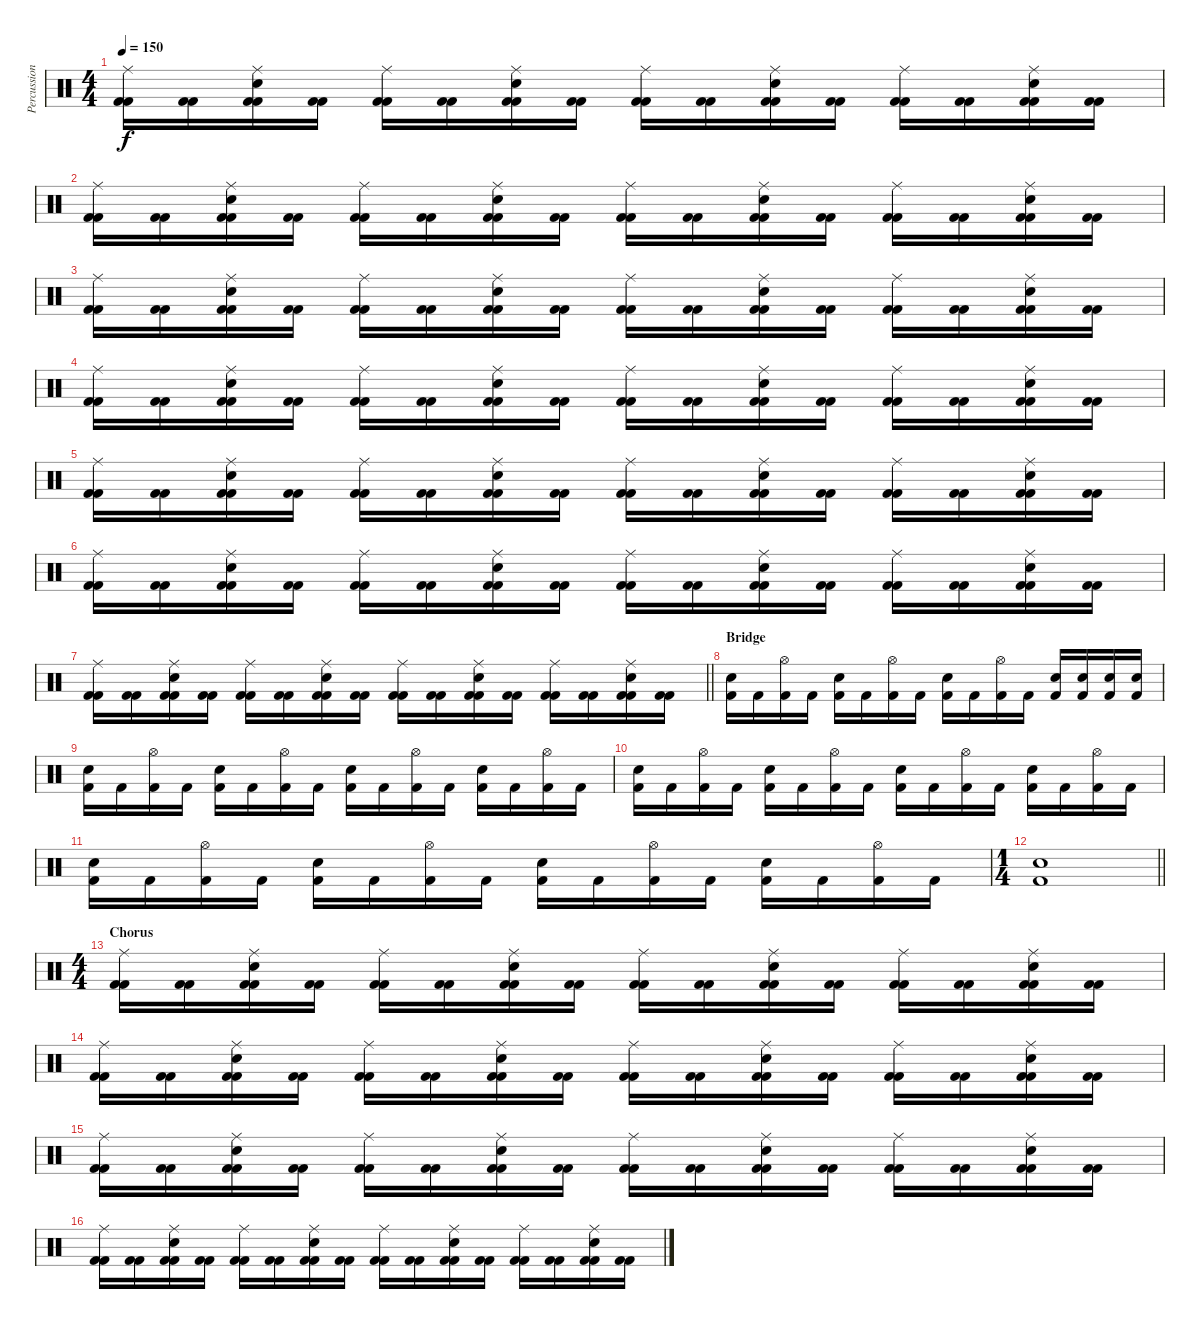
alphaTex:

\track ("Percussion" "Percussion") {instrument percussion}
\staff {score}
\articulation defaults
\ts (4 4)
\tempo 150
\clef neutral
\ks c
("Kick (hit) 2" "Kick (hit) 2" "Ride (middle)").16{dy f} ("Kick (hit) 2" "Kick (hit) 2").16 ("Kick (hit) 2" "Kick (hit) 2" "Electric Snare (hit)" "Ride (middle)").16 ("Kick (hit) 2" "Kick (hit) 2").16 ("Kick (hit) 2" "Kick (hit) 2" "Ride (middle)").16 ("Kick (hit) 2" "Kick (hit) 2").16 ("Kick (hit) 2" "Kick (hit) 2" "Electric Snare (hit)" "Ride (middle)").16 ("Kick (hit) 2" "Kick (hit) 2").16 ("Kick (hit) 2" "Kick (hit) 2" "Ride (middle)").16 ("Kick (hit) 2" "Kick (hit) 2").16 ("Kick (hit) 2" "Kick (hit) 2" "Electric Snare (hit)" "Ride (middle)").16 ("Kick (hit) 2" "Kick (hit) 2").16 ("Kick (hit) 2" "Kick (hit) 2" "Ride (middle)").16 ("Kick (hit) 2" "Kick (hit) 2").16 ("Kick (hit) 2" "Kick (hit) 2" "Electric Snare (hit)" "Ride (middle)").16 ("Kick (hit) 2" "Kick (hit) 2").16 |
("Kick (hit) 2" "Kick (hit) 2" "Ride (middle)").16 ("Kick (hit) 2" "Kick (hit) 2").16 ("Kick (hit) 2" "Kick (hit) 2" "Electric Snare (hit)" "Ride (middle)").16 ("Kick (hit) 2" "Kick (hit) 2").16 ("Kick (hit) 2" "Kick (hit) 2" "Ride (middle)").16 ("Kick (hit) 2" "Kick (hit) 2").16 ("Kick (hit) 2" "Kick (hit) 2" "Electric Snare (hit)" "Ride (middle)").16 ("Kick (hit) 2" "Kick (hit) 2").16 ("Kick (hit) 2" "Kick (hit) 2" "Ride (middle)").16 ("Kick (hit) 2" "Kick (hit) 2").16 ("Kick (hit) 2" "Kick (hit) 2" "Electric Snare (hit)" "Ride (middle)").16 ("Kick (hit) 2" "Kick (hit) 2").16 ("Kick (hit) 2" "Kick (hit) 2" "Ride (middle)").16 ("Kick (hit) 2" "Kick (hit) 2").16 ("Kick (hit) 2" "Kick (hit) 2" "Electric Snare (hit)" "Ride (middle)").16 ("Kick (hit) 2" "Kick (hit) 2").16 |
("Kick (hit) 2" "Kick (hit) 2" "Ride (middle)").16 ("Kick (hit) 2" "Kick (hit) 2").16 ("Kick (hit) 2" "Kick (hit) 2" "Electric Snare (hit)" "Ride (middle)").16 ("Kick (hit) 2" "Kick (hit) 2").16 ("Kick (hit) 2" "Kick (hit) 2" "Ride (middle)").16 ("Kick (hit) 2" "Kick (hit) 2").16 ("Kick (hit) 2" "Kick (hit) 2" "Electric Snare (hit)" "Ride (middle)").16 ("Kick (hit) 2" "Kick (hit) 2").16 ("Kick (hit) 2" "Kick (hit) 2" "Ride (middle)").16 ("Kick (hit) 2" "Kick (hit) 2").16 ("Kick (hit) 2" "Kick (hit) 2" "Electric Snare (hit)" "Ride (middle)").16 ("Kick (hit) 2" "Kick (hit) 2").16 ("Kick (hit) 2" "Kick (hit) 2" "Ride (middle)").16 ("Kick (hit) 2" "Kick (hit) 2").16 ("Kick (hit) 2" "Kick (hit) 2" "Electric Snare (hit)" "Ride (middle)").16 ("Kick (hit) 2" "Kick (hit) 2").16 |
("Kick (hit) 2" "Kick (hit) 2" "Ride (middle)").16 ("Kick (hit) 2" "Kick (hit) 2").16 ("Kick (hit) 2" "Kick (hit) 2" "Electric Snare (hit)" "Ride (middle)").16 ("Kick (hit) 2" "Kick (hit) 2").16 ("Kick (hit) 2" "Kick (hit) 2" "Ride (middle)").16 ("Kick (hit) 2" "Kick (hit) 2").16 ("Kick (hit) 2" "Kick (hit) 2" "Electric Snare (hit)" "Ride (middle)").16 ("Kick (hit) 2" "Kick (hit) 2").16 ("Kick (hit) 2" "Kick (hit) 2" "Ride (middle)").16 ("Kick (hit) 2" "Kick (hit) 2").16 ("Kick (hit) 2" "Kick (hit) 2" "Electric Snare (hit)" "Ride (middle)").16 ("Kick (hit) 2" "Kick (hit) 2").16 ("Kick (hit) 2" "Kick (hit) 2" "Ride (middle)").16 ("Kick (hit) 2" "Kick (hit) 2").16 ("Kick (hit) 2" "Kick (hit) 2" "Electric Snare (hit)" "Ride (middle)").16 ("Kick (hit) 2" "Kick (hit) 2").16 |
("Kick (hit) 2" "Kick (hit) 2" "Ride (middle)").16 ("Kick (hit) 2" "Kick (hit) 2").16 ("Kick (hit) 2" "Kick (hit) 2" "Electric Snare (hit)" "Ride (middle)").16 ("Kick (hit) 2" "Kick (hit) 2").16 ("Kick (hit) 2" "Kick (hit) 2" "Ride (middle)").16 ("Kick (hit) 2" "Kick (hit) 2").16 ("Kick (hit) 2" "Kick (hit) 2" "Electric Snare (hit)" "Ride (middle)").16 ("Kick (hit) 2" "Kick (hit) 2").16 ("Kick (hit) 2" "Kick (hit) 2" "Ride (middle)").16 ("Kick (hit) 2" "Kick (hit) 2").16 ("Kick (hit) 2" "Kick (hit) 2" "Electric Snare (hit)" "Ride (middle)").16 ("Kick (hit) 2" "Kick (hit) 2").16 ("Kick (hit) 2" "Kick (hit) 2" "Ride (middle)").16 ("Kick (hit) 2" "Kick (hit) 2").16 ("Kick (hit) 2" "Kick (hit) 2" "Electric Snare (hit)" "Ride (middle)").16 ("Kick (hit) 2" "Kick (hit) 2").16 |
("Kick (hit) 2" "Kick (hit) 2" "Ride (middle)").16 ("Kick (hit) 2" "Kick (hit) 2").16 ("Kick (hit) 2" "Kick (hit) 2" "Electric Snare (hit)" "Ride (middle)").16 ("Kick (hit) 2" "Kick (hit) 2").16 ("Kick (hit) 2" "Kick (hit) 2" "Ride (middle)").16 ("Kick (hit) 2" "Kick (hit) 2").16 ("Kick (hit) 2" "Kick (hit) 2" "Electric Snare (hit)" "Ride (middle)").16 ("Kick (hit) 2" "Kick (hit) 2").16 ("Kick (hit) 2" "Kick (hit) 2" "Ride (middle)").16 ("Kick (hit) 2" "Kick (hit) 2").16 ("Kick (hit) 2" "Kick (hit) 2" "Electric Snare (hit)" "Ride (middle)").16 ("Kick (hit) 2" "Kick (hit) 2").16 ("Kick (hit) 2" "Kick (hit) 2" "Ride (middle)").16 ("Kick (hit) 2" "Kick (hit) 2").16 ("Kick (hit) 2" "Kick (hit) 2" "Electric Snare (hit)" "Ride (middle)").16 ("Kick (hit) 2" "Kick (hit) 2").16 |
\barLineRight lightlight
("Kick (hit) 2" "Kick (hit) 2" "Ride (middle)").16 ("Kick (hit) 2" "Kick (hit) 2").16 ("Kick (hit) 2" "Kick (hit) 2" "Electric Snare (hit)" "Ride (middle)").16 ("Kick (hit) 2" "Kick (hit) 2").16 ("Kick (hit) 2" "Kick (hit) 2" "Ride (middle)").16 ("Kick (hit) 2" "Kick (hit) 2").16 ("Kick (hit) 2" "Kick (hit) 2" "Electric Snare (hit)" "Ride (middle)").16 ("Kick (hit) 2" "Kick (hit) 2").16 ("Kick (hit) 2" "Kick (hit) 2" "Ride (middle)").16 ("Kick (hit) 2" "Kick (hit) 2").16 ("Kick (hit) 2" "Kick (hit) 2" "Electric Snare (hit)" "Ride (middle)").16 ("Kick (hit) 2" "Kick (hit) 2").16 ("Kick (hit) 2" "Kick (hit) 2" "Ride (middle)").16 ("Kick (hit) 2" "Kick (hit) 2").16 ("Kick (hit) 2" "Kick (hit) 2" "Electric Snare (hit)" "Ride (middle)").16 ("Kick (hit) 2" "Kick (hit) 2").16 |
\section ("" "Bridge")
("Kick (hit) 2" "Snare (hit) 2").16 "Kick (hit) 2".16 ("Kick (hit) 2" "Hi-Hat (open)").16 "Kick (hit) 2".16 ("Kick (hit) 2" "Snare (hit) 2").16 "Kick (hit) 2".16 ("Kick (hit) 2" "Hi-Hat (open)").16 "Kick (hit) 2".16 ("Kick (hit) 2" "Snare (hit) 2").16 "Kick (hit) 2".16 ("Kick (hit) 2" "Hi-Hat (open)").16 "Kick (hit) 2".16 ("Kick (hit) 2" "Snare (hit) 2").16 ("Kick (hit) 2" "Snare (hit) 2").16 ("Kick (hit) 2" "Snare (hit) 2").16 ("Kick (hit) 2" "Snare (hit) 2").16 |
("Kick (hit) 2" "Snare (hit) 2").16 "Kick (hit) 2".16 ("Kick (hit) 2" "Hi-Hat (open)").16 "Kick (hit) 2".16 ("Kick (hit) 2" "Snare (hit) 2").16 "Kick (hit) 2".16 ("Kick (hit) 2" "Hi-Hat (open)").16 "Kick (hit) 2".16 ("Kick (hit) 2" "Snare (hit) 2").16 "Kick (hit) 2".16 ("Kick (hit) 2" "Hi-Hat (open)").16 "Kick (hit) 2".16 ("Kick (hit) 2" "Snare (hit) 2").16 "Kick (hit) 2".16 ("Kick (hit) 2" "Hi-Hat (open)").16 "Kick (hit) 2".16 |
("Kick (hit) 2" "Snare (hit) 2").16 "Kick (hit) 2".16 ("Kick (hit) 2" "Hi-Hat (open)").16 "Kick (hit) 2".16 ("Kick (hit) 2" "Snare (hit) 2").16 "Kick (hit) 2".16 ("Kick (hit) 2" "Hi-Hat (open)").16 "Kick (hit) 2".16 ("Kick (hit) 2" "Snare (hit) 2").16 "Kick (hit) 2".16 ("Kick (hit) 2" "Hi-Hat (open)").16 "Kick (hit) 2".16 ("Kick (hit) 2" "Snare (hit) 2").16 "Kick (hit) 2".16 ("Kick (hit) 2" "Hi-Hat (open)").16 "Kick (hit) 2".16 |
("Kick (hit) 2" "Snare (hit) 2").16 "Kick (hit) 2".16 ("Kick (hit) 2" "Hi-Hat (open)").16 "Kick (hit) 2".16 ("Kick (hit) 2" "Snare (hit) 2").16 "Kick (hit) 2".16 ("Kick (hit) 2" "Hi-Hat (open)").16 "Kick (hit) 2".16 ("Kick (hit) 2" "Snare (hit) 2").16 "Kick (hit) 2".16 ("Kick (hit) 2" "Hi-Hat (open)").16 "Kick (hit) 2".16 ("Kick (hit) 2" "Snare (hit) 2").16 "Kick (hit) 2".16 ("Kick (hit) 2" "Hi-Hat (open)").16 "Kick (hit) 2".16 |
\ts (1 4)
\barLineRight lightlight
("Kick (hit) 2" "Snare (hit) 2").1 |
\ts (4 4)
\section ("" "Chorus")
("Kick (hit) 2" "Kick (hit) 2" "Ride (middle)").16 ("Kick (hit) 2" "Kick (hit) 2").16 ("Kick (hit) 2" "Kick (hit) 2" "Electric Snare (hit)" "Ride (middle)").16 ("Kick (hit) 2" "Kick (hit) 2").16 ("Kick (hit) 2" "Kick (hit) 2" "Ride (middle)").16 ("Kick (hit) 2" "Kick (hit) 2").16 ("Kick (hit) 2" "Kick (hit) 2" "Electric Snare (hit)" "Ride (middle)").16 ("Kick (hit) 2" "Kick (hit) 2").16 ("Kick (hit) 2" "Kick (hit) 2" "Ride (middle)").16 ("Kick (hit) 2" "Kick (hit) 2").16 ("Kick (hit) 2" "Kick (hit) 2" "Electric Snare (hit)" "Ride (middle)").16 ("Kick (hit) 2" "Kick (hit) 2").16 ("Kick (hit) 2" "Kick (hit) 2" "Ride (middle)").16 ("Kick (hit) 2" "Kick (hit) 2").16 ("Kick (hit) 2" "Kick (hit) 2" "Electric Snare (hit)" "Ride (middle)").16 ("Kick (hit) 2" "Kick (hit) 2").16 |
("Kick (hit) 2" "Kick (hit) 2" "Ride (middle)").16 ("Kick (hit) 2" "Kick (hit) 2").16 ("Kick (hit) 2" "Kick (hit) 2" "Electric Snare (hit)" "Ride (middle)").16 ("Kick (hit) 2" "Kick (hit) 2").16 ("Kick (hit) 2" "Kick (hit) 2" "Ride (middle)").16 ("Kick (hit) 2" "Kick (hit) 2").16 ("Kick (hit) 2" "Kick (hit) 2" "Electric Snare (hit)" "Ride (middle)").16 ("Kick (hit) 2" "Kick (hit) 2").16 ("Kick (hit) 2" "Kick (hit) 2" "Ride (middle)").16 ("Kick (hit) 2" "Kick (hit) 2").16 ("Kick (hit) 2" "Kick (hit) 2" "Electric Snare (hit)" "Ride (middle)").16 ("Kick (hit) 2" "Kick (hit) 2").16 ("Kick (hit) 2" "Kick (hit) 2" "Ride (middle)").16 ("Kick (hit) 2" "Kick (hit) 2").16 ("Kick (hit) 2" "Kick (hit) 2" "Electric Snare (hit)" "Ride (middle)").16 ("Kick (hit) 2" "Kick (hit) 2").16 |
("Kick (hit) 2" "Kick (hit) 2" "Ride (middle)").16 ("Kick (hit) 2" "Kick (hit) 2").16 ("Kick (hit) 2" "Kick (hit) 2" "Electric Snare (hit)" "Ride (middle)").16 ("Kick (hit) 2" "Kick (hit) 2").16 ("Kick (hit) 2" "Kick (hit) 2" "Ride (middle)").16 ("Kick (hit) 2" "Kick (hit) 2").16 ("Kick (hit) 2" "Kick (hit) 2" "Electric Snare (hit)" "Ride (middle)").16 ("Kick (hit) 2" "Kick (hit) 2").16 ("Kick (hit) 2" "Kick (hit) 2" "Ride (middle)").16 ("Kick (hit) 2" "Kick (hit) 2").16 ("Kick (hit) 2" "Kick (hit) 2" "Electric Snare (hit)" "Ride (middle)").16 ("Kick (hit) 2" "Kick (hit) 2").16 ("Kick (hit) 2" "Kick (hit) 2" "Ride (middle)").16 ("Kick (hit) 2" "Kick (hit) 2").16 ("Kick (hit) 2" "Kick (hit) 2" "Electric Snare (hit)" "Ride (middle)").16 ("Kick (hit) 2" "Kick (hit) 2").16 |
("Kick (hit) 2" "Kick (hit) 2" "Ride (middle)").16 ("Kick (hit) 2" "Kick (hit) 2").16 ("Kick (hit) 2" "Kick (hit) 2" "Electric Snare (hit)" "Ride (middle)").16 ("Kick (hit) 2" "Kick (hit) 2").16 ("Kick (hit) 2" "Kick (hit) 2" "Ride (middle)").16 ("Kick (hit) 2" "Kick (hit) 2").16 ("Kick (hit) 2" "Kick (hit) 2" "Electric Snare (hit)" "Ride (middle)").16 ("Kick (hit) 2" "Kick (hit) 2").16 ("Kick (hit) 2" "Kick (hit) 2" "Ride (middle)").16 ("Kick (hit) 2" "Kick (hit) 2").16 ("Kick (hit) 2" "Kick (hit) 2" "Electric Snare (hit)" "Ride (middle)").16 ("Kick (hit) 2" "Kick (hit) 2").16 ("Kick (hit) 2" "Kick (hit) 2" "Ride (middle)").16 ("Kick (hit) 2" "Kick (hit) 2").16 ("Kick (hit) 2" "Kick (hit) 2" "Electric Snare (hit)" "Ride (middle)").16 ("Kick (hit) 2" "Kick (hit) 2").16
